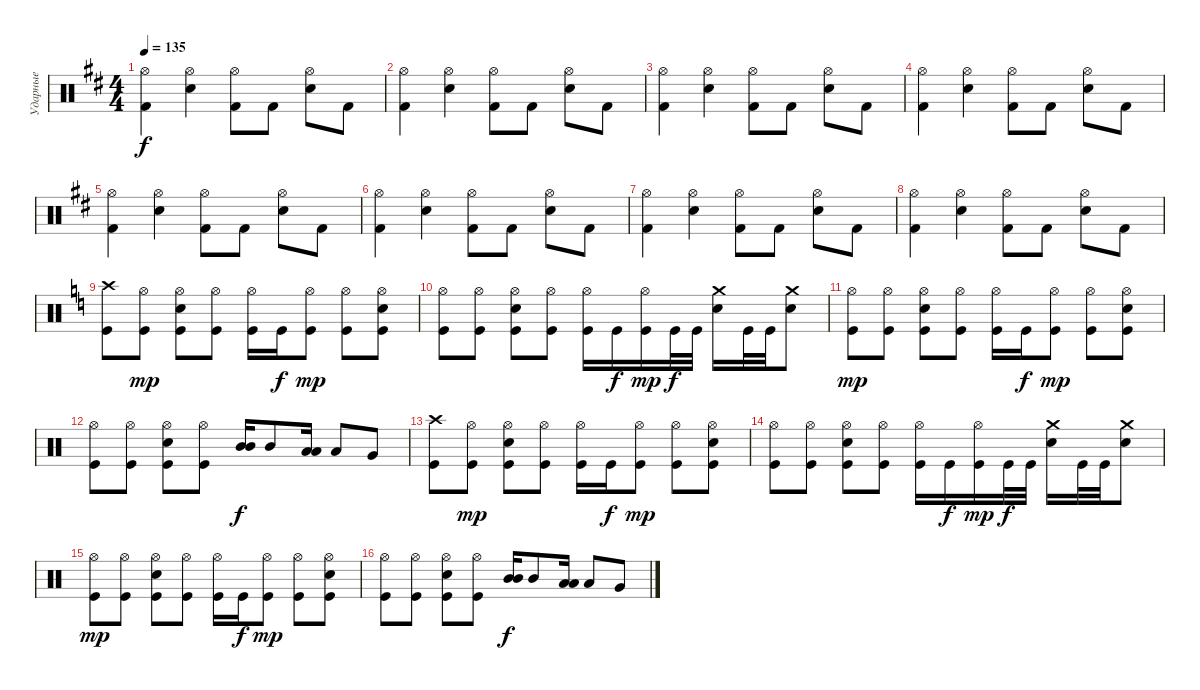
\track ("Ударные" "Ударные") {instrument percussion}
\staff {score}
\articulation defaults
\ts (4 4)
\tempo 135
\clef neutral
\ks d
("Kick (hit) 2" "Hi-Hat (open)").4{dy f} ("Snare (hit) 2" "Hi-Hat (open)").4 ("Kick (hit) 2" "Hi-Hat (open)").8 "Kick (hit) 2".8 ("Snare (hit) 2" "Hi-Hat (open)").8 "Kick (hit) 2".8 |
("Kick (hit) 2" "Hi-Hat (open)").4 ("Snare (hit) 2" "Hi-Hat (open)").4 ("Kick (hit) 2" "Hi-Hat (open)").8 "Kick (hit) 2".8 ("Snare (hit) 2" "Hi-Hat (open)").8 "Kick (hit) 2".8 |
("Kick (hit) 2" "Hi-Hat (open)").4 ("Snare (hit) 2" "Hi-Hat (open)").4 ("Kick (hit) 2" "Hi-Hat (open)").8 "Kick (hit) 2".8 ("Snare (hit) 2" "Hi-Hat (open)").8 "Kick (hit) 2".8 |
("Kick (hit) 2" "Hi-Hat (open)").4 ("Snare (hit) 2" "Hi-Hat (open)").4 ("Kick (hit) 2" "Hi-Hat (open)").8 "Kick (hit) 2".8 ("Snare (hit) 2" "Hi-Hat (open)").8 "Kick (hit) 2".8 |
("Kick (hit) 2" "Hi-Hat (open)").4 ("Snare (hit) 2" "Hi-Hat (open)").4 ("Kick (hit) 2" "Hi-Hat (open)").8 "Kick (hit) 2".8 ("Snare (hit) 2" "Hi-Hat (open)").8 "Kick (hit) 2".8 |
("Kick (hit) 2" "Hi-Hat (open)").4 ("Snare (hit) 2" "Hi-Hat (open)").4 ("Kick (hit) 2" "Hi-Hat (open)").8 "Kick (hit) 2".8 ("Snare (hit) 2" "Hi-Hat (open)").8 "Kick (hit) 2".8 |
("Kick (hit) 2" "Hi-Hat (open)").4 ("Snare (hit) 2" "Hi-Hat (open)").4 ("Kick (hit) 2" "Hi-Hat (open)").8 "Kick (hit) 2".8 ("Snare (hit) 2" "Hi-Hat (open)").8 "Kick (hit) 2".8 |
("Kick (hit) 2" "Hi-Hat (open)").4 ("Snare (hit) 2" "Hi-Hat (open)").4 ("Kick (hit) 2" "Hi-Hat (open)").8 "Kick (hit) 2".8 ("Snare (hit) 2" "Hi-Hat (open)").8 "Kick (hit) 2".8 |
\ks c
("Crash high (hit)" "Kick (hit)").8 ("Hi-Hat (open)" "Kick (hit)").8{dy mp} ("Hi-Hat (open)" "Electric Snare (hit)" "Kick (hit)").8 ("Hi-Hat (open)" "Kick (hit)").8 ("Hi-Hat (open)" "Kick (hit)").16 "Kick (hit)".16{dy f} ("Hi-Hat (open)" "Kick (hit)").8{dy mp} ("Hi-Hat (open)" "Kick (hit)").8 ("Hi-Hat (open)" "Electric Snare (hit)" "Kick (hit)").8 |
("Hi-Hat (open)" "Kick (hit)").8 ("Hi-Hat (open)" "Kick (hit)").8 ("Hi-Hat (open)" "Electric Snare (hit)" "Kick (hit)").8 ("Hi-Hat (open)" "Kick (hit)").8 ("Hi-Hat (open)" "Kick (hit)").16 "Kick (hit)".16{dy f} ("Hi-Hat (open)" "Kick (hit)").16{dy mp} "Kick (hit)".32{dy f} "Kick (hit)".32 ("Crash medium (hit)" "Electric Snare (hit)").16 "Kick (hit)".32 "Kick (hit)".32 ("Crash medium (hit)" "Electric Snare (hit)").8 |
("Hi-Hat (open)" "Kick (hit)").8{dy mp} ("Hi-Hat (open)" "Kick (hit)").8 ("Hi-Hat (open)" "Electric Snare (hit)" "Kick (hit)").8 ("Hi-Hat (open)" "Kick (hit)").8 ("Hi-Hat (open)" "Kick (hit)").16 "Kick (hit)".16{dy f} ("Hi-Hat (open)" "Kick (hit)").8{dy mp} ("Hi-Hat (open)" "Kick (hit)").8 ("Hi-Hat (open)" "Electric Snare (hit)" "Kick (hit)").8 |
("Hi-Hat (open)" "Kick (hit)").8 ("Hi-Hat (open)" "Kick (hit)").8 ("Hi-Hat (open)" "Electric Snare (hit)" "Kick (hit)").8 ("Hi-Hat (open)" "Kick (hit)").8 ("Mid Tom (hit)" "Mid Tom (hit)").16{bu 60 dy f} "Mid Tom (hit)".8 ("Low Tom (hit)" "Low Tom (hit)").16{bu 60} "Low Tom (hit)".8 "Very Low Tom (hit)".8 |
("Crash high (hit)" "Kick (hit)").8 ("Hi-Hat (open)" "Kick (hit)").8{dy mp} ("Hi-Hat (open)" "Electric Snare (hit)" "Kick (hit)").8 ("Hi-Hat (open)" "Kick (hit)").8 ("Hi-Hat (open)" "Kick (hit)").16 "Kick (hit)".16{dy f} ("Hi-Hat (open)" "Kick (hit)").8{dy mp} ("Hi-Hat (open)" "Kick (hit)").8 ("Hi-Hat (open)" "Electric Snare (hit)" "Kick (hit)").8 |
("Hi-Hat (open)" "Kick (hit)").8 ("Hi-Hat (open)" "Kick (hit)").8 ("Hi-Hat (open)" "Electric Snare (hit)" "Kick (hit)").8 ("Hi-Hat (open)" "Kick (hit)").8 ("Hi-Hat (open)" "Kick (hit)").16 "Kick (hit)".16{dy f} ("Hi-Hat (open)" "Kick (hit)").16{dy mp} "Kick (hit)".32{dy f} "Kick (hit)".32 ("Crash medium (hit)" "Electric Snare (hit)").16 "Kick (hit)".32 "Kick (hit)".32 ("Crash medium (hit)" "Electric Snare (hit)").8 |
("Hi-Hat (open)" "Kick (hit)").8{dy mp} ("Hi-Hat (open)" "Kick (hit)").8 ("Hi-Hat (open)" "Electric Snare (hit)" "Kick (hit)").8 ("Hi-Hat (open)" "Kick (hit)").8 ("Hi-Hat (open)" "Kick (hit)").16 "Kick (hit)".16{dy f} ("Hi-Hat (open)" "Kick (hit)").8{dy mp} ("Hi-Hat (open)" "Kick (hit)").8 ("Hi-Hat (open)" "Electric Snare (hit)" "Kick (hit)").8 |
("Hi-Hat (open)" "Kick (hit)").8 ("Hi-Hat (open)" "Kick (hit)").8 ("Hi-Hat (open)" "Electric Snare (hit)" "Kick (hit)").8 ("Hi-Hat (open)" "Kick (hit)").8 ("Mid Tom (hit)" "Mid Tom (hit)").16{bu 60 dy f} "Mid Tom (hit)".8 ("Low Tom (hit)" "Low Tom (hit)").16{bu 60} "Low Tom (hit)".8 "Very Low Tom (hit)".8
